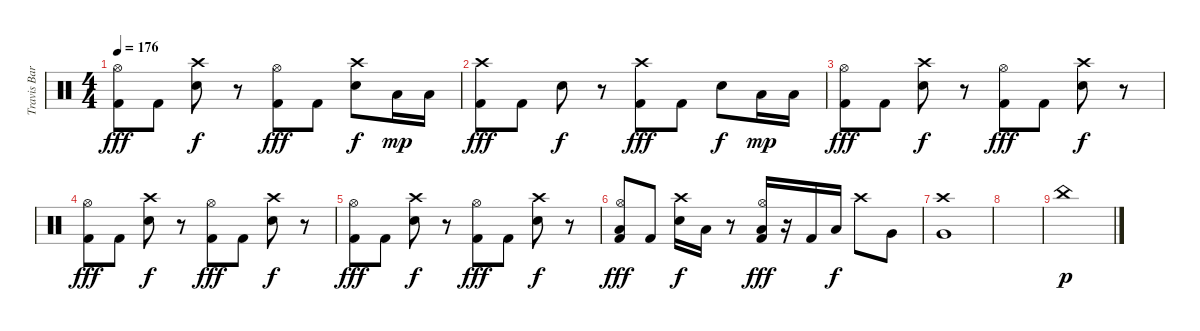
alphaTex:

\track ("Travis Barker - Drums" "Travis Bar") {instrument percussion}
\staff {score}
\articulation defaults
\ts (4 4)
\tempo 176
\clef neutral
\ks c
("Kick (hit) 2" "Hi-Hat (open)").8{dy fff} "Kick (hit) 2".8 ("Snare (hit) 2" "Crash high (hit)").8{dy f} r.8 ("Kick (hit) 2" "Hi-Hat (open)").8{dy fff} "Kick (hit) 2".8 ("Snare (hit) 2" "Crash high (hit)").8{dy f} "Low Tom (hit)".16{dy mp} "Low Tom (hit)".16 |
("Kick (hit) 2" "Crash high (hit)").8{dy fff} "Kick (hit) 2".8 "Snare (hit) 2".8{dy f} r.8 ("Kick (hit) 2" "Crash high (hit)").8{dy fff} "Kick (hit) 2".8 "Snare (hit) 2".8{dy f} "Low Tom (hit)".16{dy mp} "Low Tom (hit)".16 |
("Kick (hit) 2" "Hi-Hat (open)").8{dy fff} "Kick (hit) 2".8 ("Snare (hit) 2" "Crash high (hit)").8{dy f} r.8 ("Kick (hit) 2" "Hi-Hat (open)").8{dy fff} "Kick (hit) 2".8 ("Snare (hit) 2" "Crash high (hit)").8{dy f} r.8 |
("Kick (hit) 2" "Hi-Hat (open)").8{dy fff} "Kick (hit) 2".8 ("Snare (hit) 2" "Crash high (hit)").8{dy f} r.8 ("Kick (hit) 2" "Hi-Hat (open)").8{dy fff} "Kick (hit) 2".8 ("Snare (hit) 2" "Crash high (hit)").8{dy f} r.8 |
("Kick (hit) 2" "Hi-Hat (open)").8{dy fff} "Kick (hit) 2".8 ("Snare (hit) 2" "Crash high (hit)").8{dy f} r.8 ("Kick (hit) 2" "Hi-Hat (open)").8{dy fff} "Kick (hit) 2".8 ("Snare (hit) 2" "Crash high (hit)").8{dy f} r.8 |
("Kick (hit) 2" "Low Tom (hit)" "Hi-Hat (open)").8{dy fff} "Kick (hit) 2".8 ("Snare (hit) 2" "Crash high (hit)").16{dy f} "Low Tom (hit)".16 r.8 ("Kick (hit) 2" "Low Tom (hit)" "Hi-Hat (open)").16{dy fff} r.16 "Kick (hit) 2".16 "Low Tom (hit)".16{dy f} "Crash high (hit)".8 "Very Low Tom (hit)".8 |
("Very Low Tom (hit)" "Crash high (hit)").1 |
|
"China (hit)".1{dy p}
